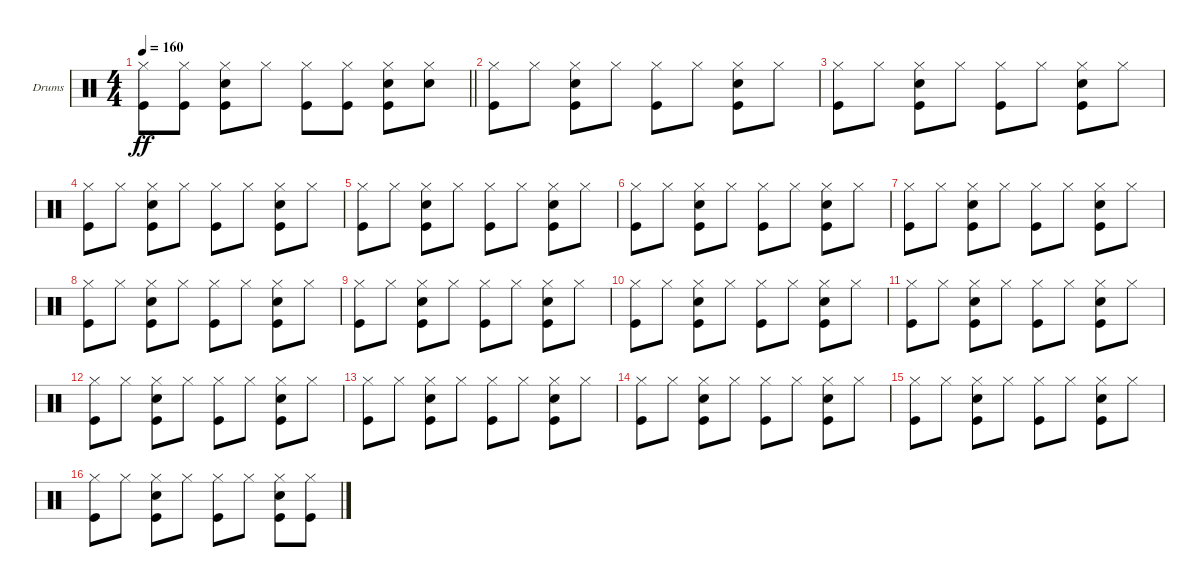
\bracketExtendMode groupsimilarinstruments
\firstSystemTrackNameOrientation horizontal
\otherSystemsTrackNameOrientation horizontal
\track ("Ударные" "Drums") {instrument percussion}
\staff {score}
\articulation defaults
\ts (4 4)
\tempo 160
\clef neutral
\barLineRight lightlight
\ks c
("Hi-Hat (closed)" "Kick (hit)").8{dy ff} ("Hi-Hat (closed)" "Kick (hit)").8 ("Hi-Hat (closed)" "Snare (hit) 2" "Kick (hit)").8 "Hi-Hat (closed)".8 ("Hi-Hat (closed)" "Kick (hit)").8 ("Hi-Hat (closed)" "Kick (hit)").8 ("Hi-Hat (closed)" "Snare (hit) 2" "Kick (hit)").8 ("Hi-Hat (closed)" "Snare (hit) 2").8 |
("Hi-Hat (closed)" "Kick (hit)").8 "Hi-Hat (closed)".8 ("Hi-Hat (closed)" "Snare (hit) 2" "Kick (hit)").8 "Hi-Hat (closed)".8 ("Hi-Hat (closed)" "Kick (hit)").8 "Hi-Hat (closed)".8 ("Hi-Hat (closed)" "Snare (hit) 2" "Kick (hit)").8 "Hi-Hat (closed)".8 |
("Hi-Hat (closed)" "Kick (hit)").8 "Hi-Hat (closed)".8 ("Hi-Hat (closed)" "Snare (hit) 2" "Kick (hit)").8 "Hi-Hat (closed)".8 ("Hi-Hat (closed)" "Kick (hit)").8 "Hi-Hat (closed)".8 ("Hi-Hat (closed)" "Snare (hit) 2" "Kick (hit)").8 "Hi-Hat (closed)".8 |
("Hi-Hat (closed)" "Kick (hit)").8 "Hi-Hat (closed)".8 ("Hi-Hat (closed)" "Snare (hit) 2" "Kick (hit)").8 "Hi-Hat (closed)".8 ("Hi-Hat (closed)" "Kick (hit)").8 "Hi-Hat (closed)".8 ("Hi-Hat (closed)" "Snare (hit) 2" "Kick (hit)").8 "Hi-Hat (closed)".8 |
("Hi-Hat (closed)" "Kick (hit)").8 "Hi-Hat (closed)".8 ("Hi-Hat (closed)" "Snare (hit) 2" "Kick (hit)").8 "Hi-Hat (closed)".8 ("Hi-Hat (closed)" "Kick (hit)").8 "Hi-Hat (closed)".8 ("Hi-Hat (closed)" "Snare (hit) 2" "Kick (hit)").8 "Hi-Hat (closed)".8 |
("Hi-Hat (closed)" "Kick (hit)").8 "Hi-Hat (closed)".8 ("Hi-Hat (closed)" "Snare (hit) 2" "Kick (hit)").8 "Hi-Hat (closed)".8 ("Hi-Hat (closed)" "Kick (hit)").8 "Hi-Hat (closed)".8 ("Hi-Hat (closed)" "Snare (hit) 2" "Kick (hit)").8 "Hi-Hat (closed)".8 |
("Hi-Hat (closed)" "Kick (hit)").8 "Hi-Hat (closed)".8 ("Hi-Hat (closed)" "Snare (hit) 2" "Kick (hit)").8 "Hi-Hat (closed)".8 ("Hi-Hat (closed)" "Kick (hit)").8 "Hi-Hat (closed)".8 ("Hi-Hat (closed)" "Snare (hit) 2" "Kick (hit)").8 "Hi-Hat (closed)".8 |
("Hi-Hat (closed)" "Kick (hit)").8 "Hi-Hat (closed)".8 ("Hi-Hat (closed)" "Snare (hit) 2" "Kick (hit)").8 "Hi-Hat (closed)".8 ("Hi-Hat (closed)" "Kick (hit)").8 "Hi-Hat (closed)".8 ("Hi-Hat (closed)" "Snare (hit) 2" "Kick (hit)").8 "Hi-Hat (closed)".8 |
("Hi-Hat (closed)" "Kick (hit)").8 "Hi-Hat (closed)".8 ("Hi-Hat (closed)" "Snare (hit) 2" "Kick (hit)").8 "Hi-Hat (closed)".8 ("Hi-Hat (closed)" "Kick (hit)").8 "Hi-Hat (closed)".8 ("Hi-Hat (closed)" "Snare (hit) 2" "Kick (hit)").8 "Hi-Hat (closed)".8 |
("Hi-Hat (closed)" "Kick (hit)").8 "Hi-Hat (closed)".8 ("Hi-Hat (closed)" "Snare (hit) 2" "Kick (hit)").8 "Hi-Hat (closed)".8 ("Hi-Hat (closed)" "Kick (hit)").8 "Hi-Hat (closed)".8 ("Hi-Hat (closed)" "Snare (hit) 2" "Kick (hit)").8 "Hi-Hat (closed)".8 |
("Hi-Hat (closed)" "Kick (hit)").8 "Hi-Hat (closed)".8 ("Hi-Hat (closed)" "Snare (hit) 2" "Kick (hit)").8 "Hi-Hat (closed)".8 ("Hi-Hat (closed)" "Kick (hit)").8 "Hi-Hat (closed)".8 ("Hi-Hat (closed)" "Snare (hit) 2" "Kick (hit)").8 "Hi-Hat (closed)".8 |
("Hi-Hat (closed)" "Kick (hit)").8 "Hi-Hat (closed)".8 ("Hi-Hat (closed)" "Snare (hit) 2" "Kick (hit)").8 "Hi-Hat (closed)".8 ("Hi-Hat (closed)" "Kick (hit)").8 "Hi-Hat (closed)".8 ("Hi-Hat (closed)" "Snare (hit) 2" "Kick (hit)").8 "Hi-Hat (closed)".8 |
("Hi-Hat (closed)" "Kick (hit)").8 "Hi-Hat (closed)".8 ("Hi-Hat (closed)" "Snare (hit) 2" "Kick (hit)").8 "Hi-Hat (closed)".8 ("Hi-Hat (closed)" "Kick (hit)").8 "Hi-Hat (closed)".8 ("Hi-Hat (closed)" "Snare (hit) 2" "Kick (hit)").8 "Hi-Hat (closed)".8 |
("Hi-Hat (closed)" "Kick (hit)").8 "Hi-Hat (closed)".8 ("Hi-Hat (closed)" "Snare (hit) 2" "Kick (hit)").8 "Hi-Hat (closed)".8 ("Hi-Hat (closed)" "Kick (hit)").8 "Hi-Hat (closed)".8 ("Hi-Hat (closed)" "Snare (hit) 2" "Kick (hit)").8 "Hi-Hat (closed)".8 |
("Hi-Hat (closed)" "Kick (hit)").8 "Hi-Hat (closed)".8 ("Hi-Hat (closed)" "Snare (hit) 2" "Kick (hit)").8 "Hi-Hat (closed)".8 ("Hi-Hat (closed)" "Kick (hit)").8 "Hi-Hat (closed)".8 ("Hi-Hat (closed)" "Snare (hit) 2" "Kick (hit)").8 "Hi-Hat (closed)".8 |
("Hi-Hat (closed)" "Kick (hit)").8 "Hi-Hat (closed)".8 ("Hi-Hat (closed)" "Snare (hit) 2" "Kick (hit)").8 "Hi-Hat (closed)".8 ("Hi-Hat (closed)" "Kick (hit)").8 "Hi-Hat (closed)".8 ("Hi-Hat (closed)" "Snare (hit) 2" "Kick (hit)").8 ("Hi-Hat (closed)" "Kick (hit)").8
